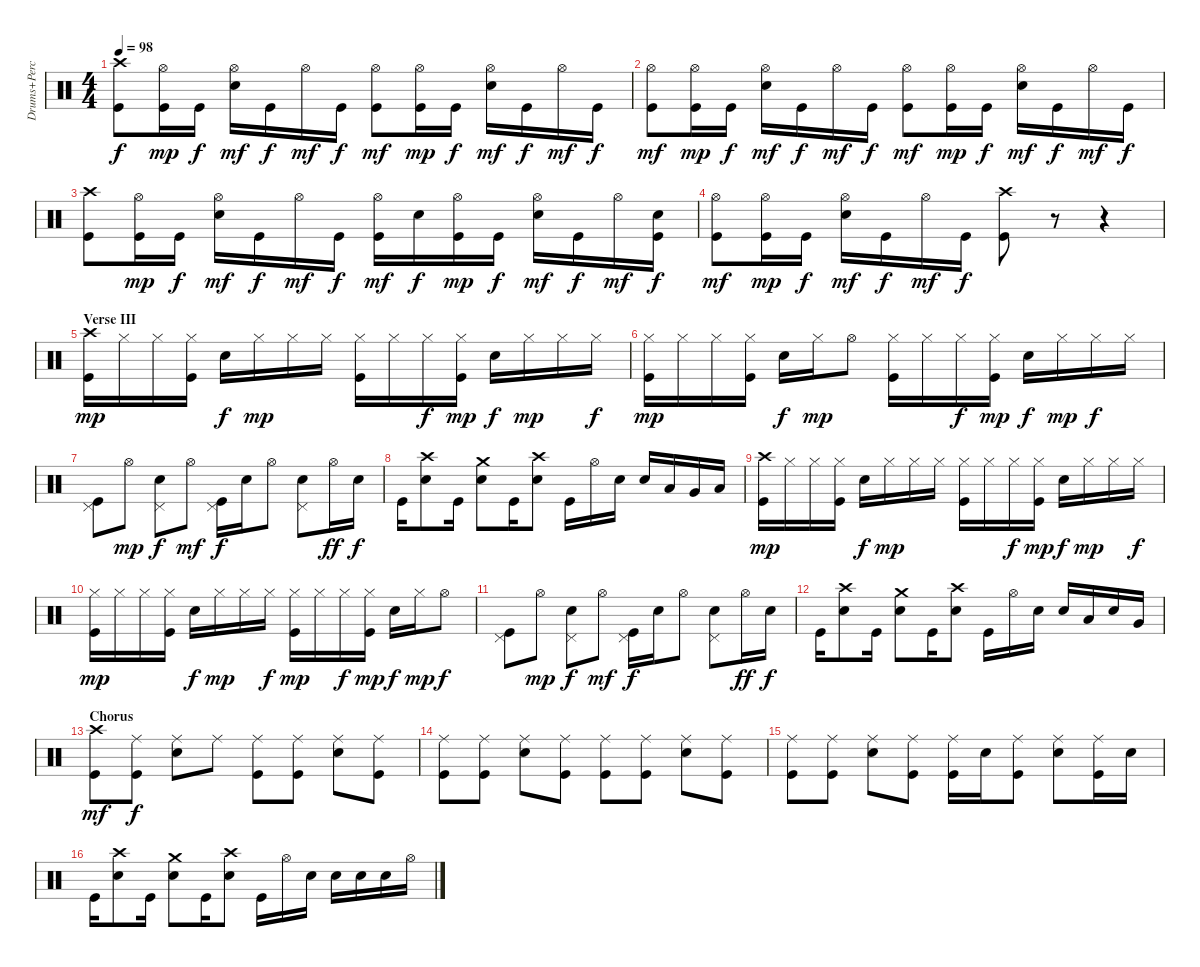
\track ("Drums+Percussion" "Drums+Perc") {instrument percussion}
\staff {score}
\articulation defaults
\ts (4 4)
\tempo 98
\clef neutral
\ks c
("Kick (hit)" "Crash high (hit)").8{dy f} ("Kick (hit)" "Hi-Hat (open)").16{dy mp} "Kick (hit)".16{dy f} ("Snare (hit) 2" "Hi-Hat (open)").16{dy mf} "Kick (hit)".16{dy f} "Hi-Hat (open)".16{dy mf} "Kick (hit)".16{dy f} ("Kick (hit)" "Hi-Hat (open)").8{dy mf} ("Kick (hit)" "Hi-Hat (open)").16{dy mp} "Kick (hit)".16{dy f} ("Snare (hit) 2" "Hi-Hat (open)").16{dy mf} "Kick (hit)".16{dy f} "Hi-Hat (open)".16{dy mf} "Kick (hit)".16{dy f} |
("Kick (hit)" "Hi-Hat (open)").8{dy mf} ("Kick (hit)" "Hi-Hat (open)").16{dy mp} "Kick (hit)".16{dy f} ("Snare (hit) 2" "Hi-Hat (open)").16{dy mf} "Kick (hit)".16{dy f} "Hi-Hat (open)".16{dy mf} "Kick (hit)".16{dy f} ("Kick (hit)" "Hi-Hat (open)").8{dy mf} ("Kick (hit)" "Hi-Hat (open)").16{dy mp} "Kick (hit)".16{dy f} ("Snare (hit) 2" "Hi-Hat (open)").16{dy mf} "Kick (hit)".16{dy f} "Hi-Hat (open)".16{dy mf} "Kick (hit)".16{dy f} |
("Kick (hit)" "Crash high (hit)").8 ("Kick (hit)" "Hi-Hat (open)").16{dy mp} "Kick (hit)".16{dy f} ("Snare (hit) 2" "Hi-Hat (open)").16{dy mf} "Kick (hit)".16{dy f} "Hi-Hat (open)".16{dy mf} "Kick (hit)".16{dy f} ("Kick (hit)" "Hi-Hat (open)").16{dy mf} "Snare (hit) 2".16{dy f} ("Kick (hit)" "Hi-Hat (open)").16{dy mp} "Kick (hit)".16{dy f} ("Snare (hit) 2" "Hi-Hat (open)").16{dy mf} "Kick (hit)".16{dy f} "Hi-Hat (open)".16{dy mf} ("Kick (hit)" "Snare (hit) 2").16{dy f} |
("Kick (hit)" "Hi-Hat (open)").8{dy mf} ("Kick (hit)" "Hi-Hat (open)").16{dy mp} "Kick (hit)".16{dy f} ("Snare (hit) 2" "Hi-Hat (open)").16{dy mf} "Kick (hit)".16{dy f} "Hi-Hat (open)".16{dy mf} "Kick (hit)".16{dy f} ("Kick (hit)" "Crash high (hit)").8 r.8{volume 0} r.4 |
\section ("" "Verse III")
("Kick (hit)" "Crash high (hit)").16{dy mp volume 13} "Hi-Hat (closed)".16 "Hi-Hat (closed)".16 ("Kick (hit)" "Hi-Hat (closed)").16 "Snare (hit) 2".16{dy f} "Hi-Hat (closed)".16{dy mp} "Hi-Hat (closed)".16 "Hi-Hat (closed)".16 ("Kick (hit)" "Hi-Hat (closed)").16 "Hi-Hat (closed)".16 "Hi-Hat (closed)".16{dy f} ("Kick (hit)" "Hi-Hat (closed)").16{dy mp} "Snare (hit) 2".16{dy f} "Hi-Hat (closed)".16{dy mp} "Hi-Hat (closed)".16 "Hi-Hat (closed)".16{dy f} |
("Kick (hit)" "Hi-Hat (closed)").16{dy mp} "Hi-Hat (closed)".16 "Hi-Hat (closed)".16 ("Kick (hit)" "Hi-Hat (closed)").16 "Snare (hit) 2".16{dy f} "Hi-Hat (closed)".16{dy mp} "Hi-Hat (open)".8 ("Kick (hit)" "Hi-Hat (closed)").16 "Hi-Hat (closed)".16 "Hi-Hat (closed)".16{dy f} ("Kick (hit)" "Hi-Hat (closed)").16{dy mp} "Snare (hit) 2".16{dy f} "Hi-Hat (closed)".16{dy mp} "Hi-Hat (closed)".16{dy f} "Hi-Hat (closed)".16 |
("Kick (hit)" "Pedal Hi-Hat (hit)").8 "Hi-Hat (open)".8{dy mp} ("Snare (hit) 2" "Pedal Hi-Hat (hit)").8{dy f} "Hi-Hat (open)".8{dy mf} ("Kick (hit)" "Pedal Hi-Hat (hit)").16{dy f} "Snare (hit) 2".16 "Hi-Hat (open)".8 ("Snare (hit) 2" "Pedal Hi-Hat (hit)").8 "Hi-Hat (open)".16{dy ff} "Snare (hit) 2".16{dy f} |
"Kick (hit)".16 ("Snare (hit) 2" "Crash high (hit)").8 "Kick (hit)".16 ("Snare (hit) 2" "Crash medium (hit)").8 "Kick (hit)".16 ("Snare (hit) 2" "Crash high (hit)").8 "Kick (hit)".16 "Hi-Hat (open)".16 "Snare (hit) 2".16 "Snare (hit) 2".16 "Low Tom (hit)".16 "Very Low Tom (hit)".16 "Low Floor Tom (hit)".16 |
("Kick (hit)" "Crash high (hit)").16{dy mp} "Hi-Hat (closed)".16 "Hi-Hat (closed)".16 ("Kick (hit)" "Hi-Hat (closed)").16 "Snare (hit) 2".16{dy f} "Hi-Hat (closed)".16{dy mp} "Hi-Hat (closed)".16 "Hi-Hat (closed)".16 ("Kick (hit)" "Hi-Hat (closed)").16 "Hi-Hat (closed)".16 "Hi-Hat (closed)".16{dy f} ("Kick (hit)" "Hi-Hat (closed)").16{dy mp} "Snare (hit) 2".16{dy f} "Hi-Hat (closed)".16{dy mp} "Hi-Hat (closed)".16 "Hi-Hat (closed)".16{dy f} |
("Kick (hit)" "Hi-Hat (closed)").16{dy mp} "Hi-Hat (closed)".16 "Hi-Hat (closed)".16 ("Kick (hit)" "Hi-Hat (closed)").16 "Snare (hit) 2".16{dy f} "Hi-Hat (closed)".16{dy mp} "Hi-Hat (closed)".16 "Hi-Hat (closed)".16{dy f} ("Kick (hit)" "Hi-Hat (closed)").16{dy mp} "Hi-Hat (closed)".16 "Hi-Hat (closed)".16{dy f} ("Kick (hit)" "Hi-Hat (closed)").16{dy mp} "Snare (hit) 2".16{dy f} "Hi-Hat (closed)".16{dy mp} "Hi-Hat (open)".8{dy f} |
("Kick (hit)" "Pedal Hi-Hat (hit)").8 "Hi-Hat (open)".8{dy mp} ("Snare (hit) 2" "Pedal Hi-Hat (hit)").8{dy f} "Hi-Hat (open)".8{dy mf} ("Kick (hit)" "Pedal Hi-Hat (hit)").16{dy f} "Snare (hit) 2".16 "Hi-Hat (open)".8 ("Snare (hit) 2" "Pedal Hi-Hat (hit)").8 "Hi-Hat (open)".16{dy ff} "Snare (hit) 2".16{dy f} |
"Kick (hit)".16 ("Snare (hit) 2" "Crash high (hit)").8 "Kick (hit)".16 ("Snare (hit) 2" "Crash medium (hit)").8 "Kick (hit)".16 ("Snare (hit) 2" "Crash high (hit)").8 "Kick (hit)".16 "Hi-Hat (open)".16 "Snare (hit) 2".16 "Snare (hit) 2".16 "Low Tom (hit)".16 "Snare (hit) 2".16 "Very Low Tom (hit)".16 |
\section ("" "Chorus")
("Kick (hit)" "Crash high (hit)").8{dy mf} ("Kick (hit)" "Ride (middle)").8{dy f} ("Snare (hit) 2" "Ride (middle)").8 "Ride (middle)".8 ("Kick (hit)" "Ride (middle)").8 ("Kick (hit)" "Ride (middle)").8 ("Snare (hit) 2" "Ride (middle)").8 ("Kick (hit)" "Ride (middle)").8 |
("Kick (hit)" "Ride (middle)").8 ("Kick (hit)" "Ride (middle)").8 ("Snare (hit) 2" "Ride (middle)").8 ("Kick (hit)" "Ride (middle)").8 ("Kick (hit)" "Ride (middle)").8 ("Kick (hit)" "Ride (middle)").8 ("Snare (hit) 2" "Ride (middle)").8 ("Kick (hit)" "Ride (middle)").8 |
("Kick (hit)" "Ride (middle)").8 ("Kick (hit)" "Ride (middle)").8 ("Snare (hit) 2" "Ride (middle)").8 ("Kick (hit)" "Ride (middle)").8 ("Kick (hit)" "Ride (middle)").16 "Snare (hit) 2".16 ("Kick (hit)" "Ride (middle)").8 ("Snare (hit) 2" "Ride (middle)").8 ("Kick (hit)" "Ride (middle)").16 "Snare (hit) 2".16 |
"Kick (hit)".16 ("Snare (hit) 2" "Crash high (hit)").8 "Kick (hit)".16 ("Snare (hit) 2" "Crash medium (hit)").8 "Kick (hit)".16 ("Snare (hit) 2" "Crash high (hit)").8 "Kick (hit)".16 "Hi-Hat (open)".16 "Snare (hit) 2".16 "Snare (hit) 2".16 "Snare (hit) 2".16 "Snare (hit) 2".16 "Hi-Hat (open)".16
